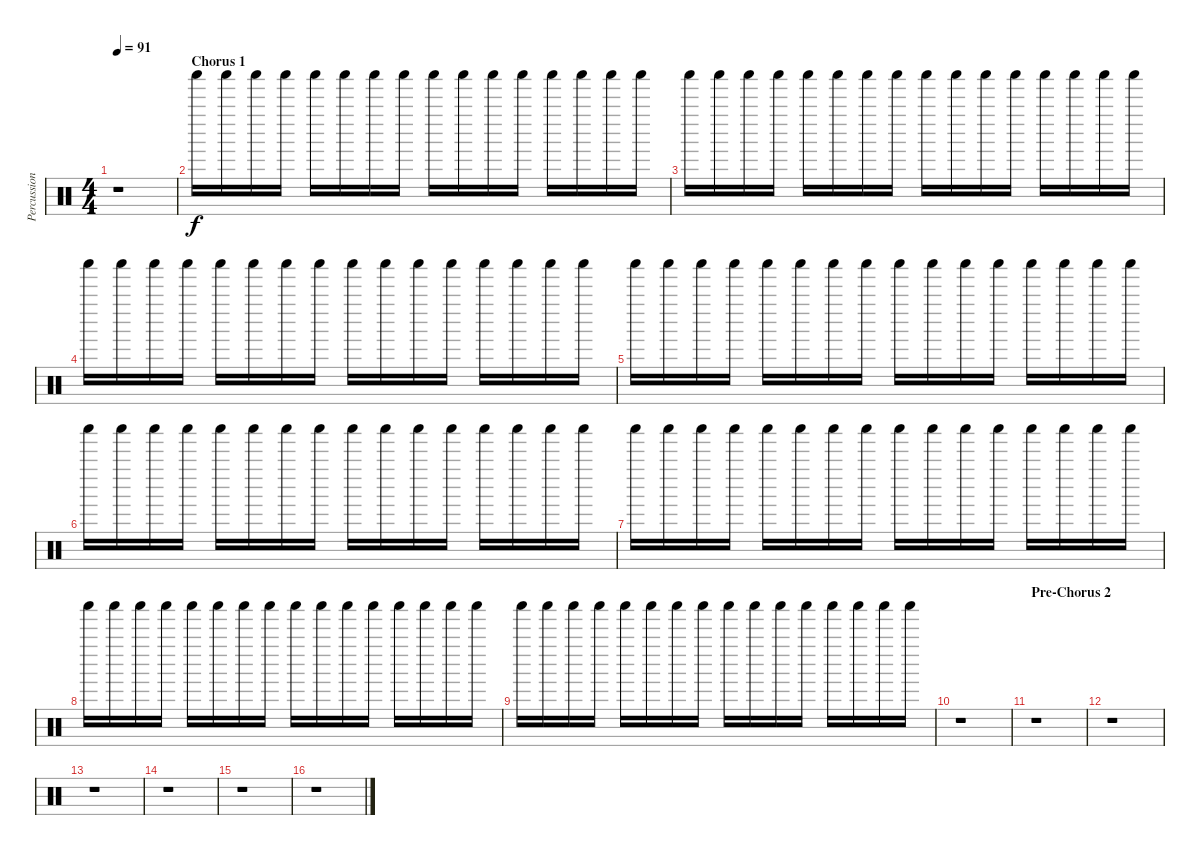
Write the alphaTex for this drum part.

\track ("Percussions" "Percussion") {instrument percussion}
\staff {score}
\articulation defaults
\ts (4 4)
\tempo 91
\clef neutral
\ks c
r.1{dy f} |
\section ("" "Chorus 1")
"Shaker (hit)".16 "Shaker (hit)".16 "Shaker (hit)".16 "Shaker (hit)".16 "Shaker (hit)".16 "Shaker (hit)".16 "Shaker (hit)".16 "Shaker (hit)".16 "Shaker (hit)".16 "Shaker (hit)".16 "Shaker (hit)".16 "Shaker (hit)".16 "Shaker (hit)".16 "Shaker (hit)".16 "Shaker (hit)".16 "Shaker (hit)".16 |
"Shaker (hit)".16 "Shaker (hit)".16 "Shaker (hit)".16 "Shaker (hit)".16 "Shaker (hit)".16 "Shaker (hit)".16 "Shaker (hit)".16 "Shaker (hit)".16 "Shaker (hit)".16 "Shaker (hit)".16 "Shaker (hit)".16 "Shaker (hit)".16 "Shaker (hit)".16 "Shaker (hit)".16 "Shaker (hit)".16 "Shaker (hit)".16 |
"Shaker (hit)".16 "Shaker (hit)".16 "Shaker (hit)".16 "Shaker (hit)".16 "Shaker (hit)".16 "Shaker (hit)".16 "Shaker (hit)".16 "Shaker (hit)".16 "Shaker (hit)".16 "Shaker (hit)".16 "Shaker (hit)".16 "Shaker (hit)".16 "Shaker (hit)".16 "Shaker (hit)".16 "Shaker (hit)".16 "Shaker (hit)".16 |
"Shaker (hit)".16 "Shaker (hit)".16 "Shaker (hit)".16 "Shaker (hit)".16 "Shaker (hit)".16 "Shaker (hit)".16 "Shaker (hit)".16 "Shaker (hit)".16 "Shaker (hit)".16 "Shaker (hit)".16 "Shaker (hit)".16 "Shaker (hit)".16 "Shaker (hit)".16 "Shaker (hit)".16 "Shaker (hit)".16 "Shaker (hit)".16 |
"Shaker (hit)".16 "Shaker (hit)".16 "Shaker (hit)".16 "Shaker (hit)".16 "Shaker (hit)".16 "Shaker (hit)".16 "Shaker (hit)".16 "Shaker (hit)".16 "Shaker (hit)".16 "Shaker (hit)".16 "Shaker (hit)".16 "Shaker (hit)".16 "Shaker (hit)".16 "Shaker (hit)".16 "Shaker (hit)".16 "Shaker (hit)".16 |
"Shaker (hit)".16 "Shaker (hit)".16 "Shaker (hit)".16 "Shaker (hit)".16 "Shaker (hit)".16 "Shaker (hit)".16 "Shaker (hit)".16 "Shaker (hit)".16 "Shaker (hit)".16 "Shaker (hit)".16 "Shaker (hit)".16 "Shaker (hit)".16 "Shaker (hit)".16 "Shaker (hit)".16 "Shaker (hit)".16 "Shaker (hit)".16 |
"Shaker (hit)".16 "Shaker (hit)".16 "Shaker (hit)".16 "Shaker (hit)".16 "Shaker (hit)".16 "Shaker (hit)".16 "Shaker (hit)".16 "Shaker (hit)".16 "Shaker (hit)".16 "Shaker (hit)".16 "Shaker (hit)".16 "Shaker (hit)".16 "Shaker (hit)".16 "Shaker (hit)".16 "Shaker (hit)".16 "Shaker (hit)".16 |
"Shaker (hit)".16 "Shaker (hit)".16 "Shaker (hit)".16 "Shaker (hit)".16 "Shaker (hit)".16 "Shaker (hit)".16 "Shaker (hit)".16 "Shaker (hit)".16 "Shaker (hit)".16 "Shaker (hit)".16 "Shaker (hit)".16 "Shaker (hit)".16 "Shaker (hit)".16 "Shaker (hit)".16 "Shaker (hit)".16 "Shaker (hit)".16 |
r.1 |
\section ("" "Pre-Chorus 2")
r.1 |
r.1 |
r.1 |
r.1 |
r.1 |
r.1
